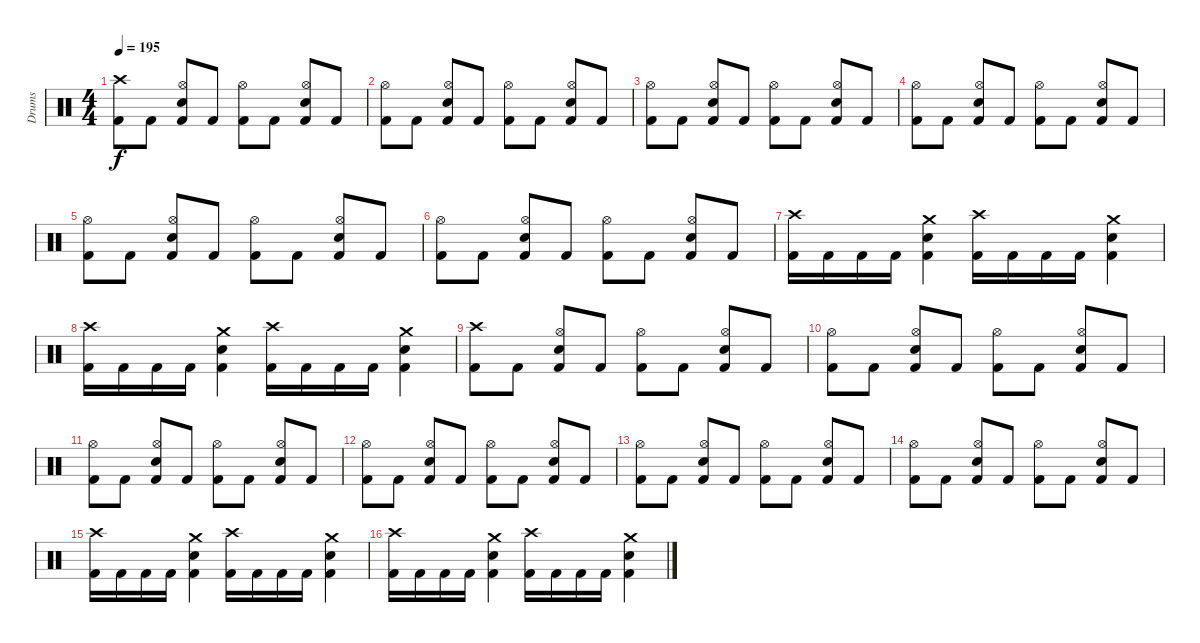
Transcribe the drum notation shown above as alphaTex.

\track ("Drums" "Drums") {instrument percussion}
\staff {score}
\articulation defaults
\ts (4 4)
\tempo 195
\clef neutral
\ks c
("Crash high (hit)" "Kick (hit) 2").8{dy f} "Kick (hit) 2".8 ("Hi-Hat (open)" "Snare (hit) 2" "Kick (hit) 2").8 "Kick (hit) 2".8 ("Hi-Hat (open)" "Kick (hit) 2").8 "Kick (hit) 2".8 ("Hi-Hat (open)" "Snare (hit) 2" "Kick (hit) 2").8 "Kick (hit) 2".8 |
("Hi-Hat (open)" "Kick (hit) 2").8 "Kick (hit) 2".8 ("Hi-Hat (open)" "Snare (hit) 2" "Kick (hit) 2").8 "Kick (hit) 2".8 ("Hi-Hat (open)" "Kick (hit) 2").8 "Kick (hit) 2".8 ("Hi-Hat (open)" "Snare (hit) 2" "Kick (hit) 2").8 "Kick (hit) 2".8 |
("Hi-Hat (open)" "Kick (hit) 2").8 "Kick (hit) 2".8 ("Hi-Hat (open)" "Snare (hit) 2" "Kick (hit) 2").8 "Kick (hit) 2".8 ("Hi-Hat (open)" "Kick (hit) 2").8 "Kick (hit) 2".8 ("Hi-Hat (open)" "Snare (hit) 2" "Kick (hit) 2").8 "Kick (hit) 2".8 |
("Hi-Hat (open)" "Kick (hit) 2").8 "Kick (hit) 2".8 ("Hi-Hat (open)" "Snare (hit) 2" "Kick (hit) 2").8 "Kick (hit) 2".8 ("Hi-Hat (open)" "Kick (hit) 2").8 "Kick (hit) 2".8 ("Hi-Hat (open)" "Snare (hit) 2" "Kick (hit) 2").8 "Kick (hit) 2".8 |
("Hi-Hat (open)" "Kick (hit) 2").8 "Kick (hit) 2".8 ("Hi-Hat (open)" "Snare (hit) 2" "Kick (hit) 2").8 "Kick (hit) 2".8 ("Hi-Hat (open)" "Kick (hit) 2").8 "Kick (hit) 2".8 ("Hi-Hat (open)" "Snare (hit) 2" "Kick (hit) 2").8 "Kick (hit) 2".8 |
("Hi-Hat (open)" "Kick (hit) 2").8 "Kick (hit) 2".8 ("Hi-Hat (open)" "Snare (hit) 2" "Kick (hit) 2").8 "Kick (hit) 2".8 ("Hi-Hat (open)" "Kick (hit) 2").8 "Kick (hit) 2".8 ("Hi-Hat (open)" "Snare (hit) 2" "Kick (hit) 2").8 "Kick (hit) 2".8 |
("Kick (hit) 2" "Crash high (hit)").16 "Kick (hit) 2".16 "Kick (hit) 2".16 "Kick (hit) 2".16 ("Kick (hit) 2" "Snare (hit) 2" "Crash medium (hit)").4 ("Kick (hit) 2" "Crash high (hit)").16 "Kick (hit) 2".16 "Kick (hit) 2".16 "Kick (hit) 2".16 ("Kick (hit) 2" "Snare (hit) 2" "Crash medium (hit)").4 |
("Kick (hit) 2" "Crash high (hit)").16 "Kick (hit) 2".16 "Kick (hit) 2".16 "Kick (hit) 2".16 ("Kick (hit) 2" "Snare (hit) 2" "Crash medium (hit)").4 ("Kick (hit) 2" "Crash high (hit)").16 "Kick (hit) 2".16 "Kick (hit) 2".16 "Kick (hit) 2".16 ("Kick (hit) 2" "Snare (hit) 2" "Crash medium (hit)").4 |
("Crash high (hit)" "Kick (hit) 2").8 "Kick (hit) 2".8 ("Hi-Hat (open)" "Snare (hit) 2" "Kick (hit) 2").8 "Kick (hit) 2".8 ("Hi-Hat (open)" "Kick (hit) 2").8 "Kick (hit) 2".8 ("Hi-Hat (open)" "Snare (hit) 2" "Kick (hit) 2").8 "Kick (hit) 2".8 |
("Hi-Hat (open)" "Kick (hit) 2").8 "Kick (hit) 2".8 ("Hi-Hat (open)" "Snare (hit) 2" "Kick (hit) 2").8 "Kick (hit) 2".8 ("Hi-Hat (open)" "Kick (hit) 2").8 "Kick (hit) 2".8 ("Hi-Hat (open)" "Snare (hit) 2" "Kick (hit) 2").8 "Kick (hit) 2".8 |
("Hi-Hat (open)" "Kick (hit) 2").8 "Kick (hit) 2".8 ("Hi-Hat (open)" "Snare (hit) 2" "Kick (hit) 2").8 "Kick (hit) 2".8 ("Hi-Hat (open)" "Kick (hit) 2").8 "Kick (hit) 2".8 ("Hi-Hat (open)" "Snare (hit) 2" "Kick (hit) 2").8 "Kick (hit) 2".8 |
("Hi-Hat (open)" "Kick (hit) 2").8 "Kick (hit) 2".8 ("Hi-Hat (open)" "Snare (hit) 2" "Kick (hit) 2").8 "Kick (hit) 2".8 ("Hi-Hat (open)" "Kick (hit) 2").8 "Kick (hit) 2".8 ("Hi-Hat (open)" "Snare (hit) 2" "Kick (hit) 2").8 "Kick (hit) 2".8 |
("Hi-Hat (open)" "Kick (hit) 2").8 "Kick (hit) 2".8 ("Hi-Hat (open)" "Snare (hit) 2" "Kick (hit) 2").8 "Kick (hit) 2".8 ("Hi-Hat (open)" "Kick (hit) 2").8 "Kick (hit) 2".8 ("Hi-Hat (open)" "Snare (hit) 2" "Kick (hit) 2").8 "Kick (hit) 2".8 |
("Hi-Hat (open)" "Kick (hit) 2").8 "Kick (hit) 2".8 ("Hi-Hat (open)" "Snare (hit) 2" "Kick (hit) 2").8 "Kick (hit) 2".8 ("Hi-Hat (open)" "Kick (hit) 2").8 "Kick (hit) 2".8 ("Hi-Hat (open)" "Snare (hit) 2" "Kick (hit) 2").8 "Kick (hit) 2".8 |
("Kick (hit) 2" "Crash high (hit)").16 "Kick (hit) 2".16 "Kick (hit) 2".16 "Kick (hit) 2".16 ("Kick (hit) 2" "Snare (hit) 2" "Crash medium (hit)").4 ("Kick (hit) 2" "Crash high (hit)").16 "Kick (hit) 2".16 "Kick (hit) 2".16 "Kick (hit) 2".16 ("Kick (hit) 2" "Snare (hit) 2" "Crash medium (hit)").4 |
("Kick (hit) 2" "Crash high (hit)").16 "Kick (hit) 2".16 "Kick (hit) 2".16 "Kick (hit) 2".16 ("Kick (hit) 2" "Snare (hit) 2" "Crash medium (hit)").4 ("Kick (hit) 2" "Crash high (hit)").16 "Kick (hit) 2".16 "Kick (hit) 2".16 "Kick (hit) 2".16 ("Kick (hit) 2" "Snare (hit) 2" "Crash medium (hit)").4
